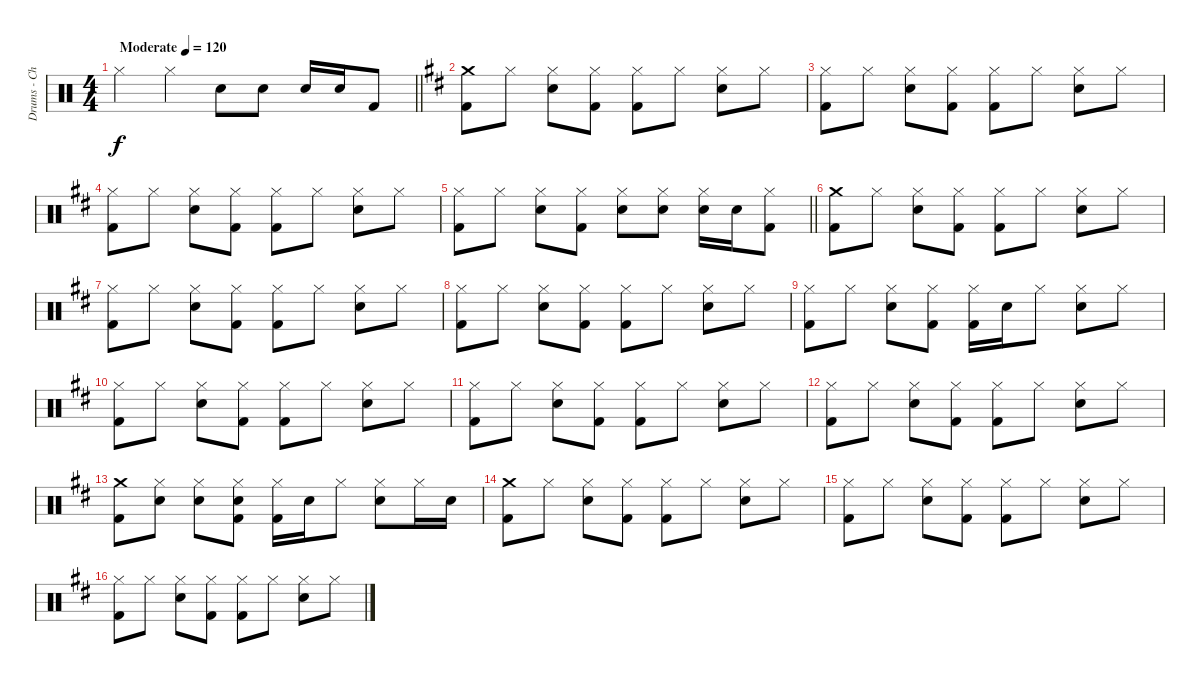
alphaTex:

\track ("Drums - Choi Min Hwan" "Drums - Ch") {instrument percussion}
\staff {score}
\articulation defaults
\ts (4 4)
\tempo (120 "Moderate")
\clef neutral
\barLineRight lightlight
\ks c "Hi-Hat (closed)".4{dy f} "Hi-Hat (closed)".4 "Electric Snare (hit)".8 "Electric Snare (hit)".8 "Electric Snare (hit)".16 "Electric Snare (hit)".16 "Kick (hit) 2".8
|
\ks bminor
("Crash medium (hit)" "Kick (hit) 2").8 "Hi-Hat (closed)".8 ("Hi-Hat (closed)" "Electric Snare (hit)").8 ("Hi-Hat (closed)" "Kick (hit) 2").8 ("Hi-Hat (closed)" "Kick (hit) 2").8 "Hi-Hat (closed)".8 ("Hi-Hat (closed)" "Electric Snare (hit)").8 "Hi-Hat (closed)".8 |
("Hi-Hat (closed)" "Kick (hit) 2").8 "Hi-Hat (closed)".8 ("Hi-Hat (closed)" "Electric Snare (hit)").8 ("Hi-Hat (closed)" "Kick (hit) 2").8 ("Hi-Hat (closed)" "Kick (hit) 2").8 "Hi-Hat (closed)".8 ("Hi-Hat (closed)" "Electric Snare (hit)").8 "Hi-Hat (closed)".8 |
("Hi-Hat (closed)" "Kick (hit) 2").8 "Hi-Hat (closed)".8 ("Hi-Hat (closed)" "Electric Snare (hit)").8 ("Hi-Hat (closed)" "Kick (hit) 2").8 ("Hi-Hat (closed)" "Kick (hit) 2").8 "Hi-Hat (closed)".8 ("Hi-Hat (closed)" "Electric Snare (hit)").8 "Hi-Hat (closed)".8 |
\barLineRight lightlight
("Hi-Hat (closed)" "Kick (hit) 2").8 "Hi-Hat (closed)".8 ("Hi-Hat (closed)" "Electric Snare (hit)").8 ("Hi-Hat (closed)" "Kick (hit) 2").8 ("Hi-Hat (closed)" "Electric Snare (hit)").8 ("Hi-Hat (closed)" "Electric Snare (hit)").8 ("Hi-Hat (closed)" "Electric Snare (hit)").16 "Electric Snare (hit)".16 ("Hi-Hat (closed)" "Kick (hit) 2").8 |
("Crash medium (hit)" "Kick (hit) 2").8 "Hi-Hat (closed)".8 ("Hi-Hat (closed)" "Electric Snare (hit)").8 ("Hi-Hat (closed)" "Kick (hit) 2").8 ("Hi-Hat (closed)" "Kick (hit) 2").8 "Hi-Hat (closed)".8 ("Hi-Hat (closed)" "Electric Snare (hit)").8 "Hi-Hat (closed)".8 |
("Hi-Hat (closed)" "Kick (hit) 2").8 "Hi-Hat (closed)".8 ("Hi-Hat (closed)" "Electric Snare (hit)").8 ("Hi-Hat (closed)" "Kick (hit) 2").8 ("Hi-Hat (closed)" "Kick (hit) 2").8 "Hi-Hat (closed)".8 ("Hi-Hat (closed)" "Electric Snare (hit)").8 "Hi-Hat (closed)".8 |
("Hi-Hat (closed)" "Kick (hit) 2").8 "Hi-Hat (closed)".8 ("Hi-Hat (closed)" "Electric Snare (hit)").8 ("Hi-Hat (closed)" "Kick (hit) 2").8 ("Hi-Hat (closed)" "Kick (hit) 2").8 "Hi-Hat (closed)".8 ("Hi-Hat (closed)" "Electric Snare (hit)").8 "Hi-Hat (closed)".8 |
("Hi-Hat (closed)" "Kick (hit) 2").8 "Hi-Hat (closed)".8 ("Hi-Hat (closed)" "Electric Snare (hit)").8 ("Hi-Hat (closed)" "Kick (hit) 2").8 ("Hi-Hat (closed)" "Kick (hit) 2").16 "Electric Snare (hit)".16 "Hi-Hat (closed)".8 ("Hi-Hat (closed)" "Electric Snare (hit)").8 "Hi-Hat (closed)".8 |
("Hi-Hat (closed)" "Kick (hit) 2").8 "Hi-Hat (closed)".8 ("Hi-Hat (closed)" "Electric Snare (hit)").8 ("Hi-Hat (closed)" "Kick (hit) 2").8 ("Hi-Hat (closed)" "Kick (hit) 2").8 "Hi-Hat (closed)".8 ("Hi-Hat (closed)" "Electric Snare (hit)").8 "Hi-Hat (closed)".8 |
("Hi-Hat (closed)" "Kick (hit) 2").8 "Hi-Hat (closed)".8 ("Hi-Hat (closed)" "Electric Snare (hit)").8 ("Hi-Hat (closed)" "Kick (hit) 2").8 ("Hi-Hat (closed)" "Kick (hit) 2").8 "Hi-Hat (closed)".8 ("Hi-Hat (closed)" "Electric Snare (hit)").8 "Hi-Hat (closed)".8 |
("Hi-Hat (closed)" "Kick (hit) 2").8 "Hi-Hat (closed)".8 ("Hi-Hat (closed)" "Electric Snare (hit)").8 ("Hi-Hat (closed)" "Kick (hit) 2").8 ("Hi-Hat (closed)" "Kick (hit) 2").8 "Hi-Hat (closed)".8 ("Hi-Hat (closed)" "Electric Snare (hit)").8 "Hi-Hat (closed)".8 |
("Crash medium (hit)" "Kick (hit) 2").8 ("Hi-Hat (closed)" "Electric Snare (hit)").8 ("Hi-Hat (closed)" "Electric Snare (hit)").8 ("Hi-Hat (closed)" "Electric Snare (hit)" "Kick (hit) 2").8 ("Hi-Hat (closed)" "Kick (hit) 2").16 "Electric Snare (hit)".16 "Hi-Hat (closed)".8 ("Hi-Hat (closed)" "Electric Snare (hit)").8 "Hi-Hat (closed)".16 "Electric Snare (hit)".16 |
("Crash medium (hit)" "Kick (hit) 2").8 "Hi-Hat (closed)".8 ("Hi-Hat (closed)" "Electric Snare (hit)").8 ("Hi-Hat (closed)" "Kick (hit) 2").8 ("Hi-Hat (closed)" "Kick (hit) 2").8 "Hi-Hat (closed)".8 ("Hi-Hat (closed)" "Electric Snare (hit)").8 "Hi-Hat (closed)".8 |
("Hi-Hat (closed)" "Kick (hit) 2").8 "Hi-Hat (closed)".8 ("Hi-Hat (closed)" "Electric Snare (hit)").8 ("Hi-Hat (closed)" "Kick (hit) 2").8 ("Hi-Hat (closed)" "Kick (hit) 2").8 "Hi-Hat (closed)".8 ("Hi-Hat (closed)" "Electric Snare (hit)").8 "Hi-Hat (closed)".8 |
("Hi-Hat (closed)" "Kick (hit) 2").8 "Hi-Hat (closed)".8 ("Hi-Hat (closed)" "Electric Snare (hit)").8 ("Hi-Hat (closed)" "Kick (hit) 2").8 ("Hi-Hat (closed)" "Kick (hit) 2").8 "Hi-Hat (closed)".8 ("Hi-Hat (closed)" "Electric Snare (hit)").8 "Hi-Hat (closed)".8
